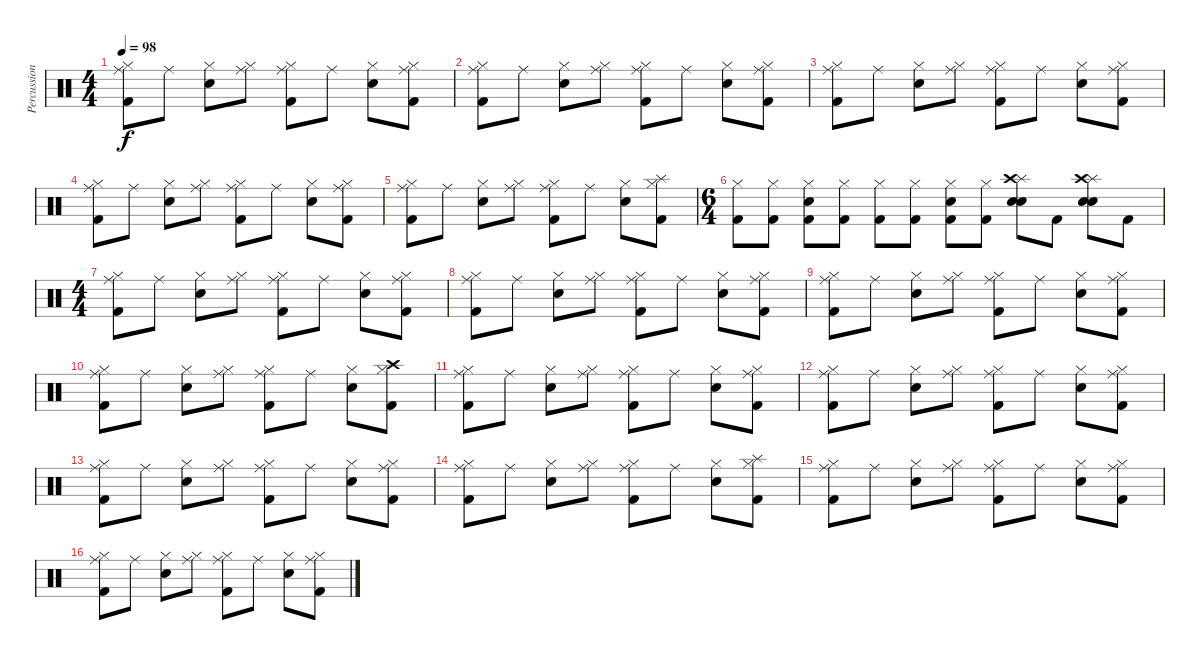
\track ("Percussion" "Percussion") {instrument percussion}
\staff {score}
\articulation defaults
\ts (4 4)
\tempo 98
\clef neutral
\ks c
("Hi-Hat (closed)" "Kick (hit) 2" "Ride (middle)").8{dy f} "Ride (middle)".8 ("Hi-Hat (closed)" "Electric Snare (hit)").8 ("Hi-Hat (closed)" "Ride (middle)").8 ("Hi-Hat (closed)" "Kick (hit) 2" "Ride (middle)").8 "Ride (middle)".8 ("Hi-Hat (closed)" "Electric Snare (hit)").8 ("Hi-Hat (closed)" "Kick (hit) 2" "Ride (middle)").8 |
("Hi-Hat (closed)" "Kick (hit) 2" "Ride (middle)").8 "Ride (middle)".8 ("Hi-Hat (closed)" "Electric Snare (hit)").8 ("Hi-Hat (closed)" "Ride (middle)").8 ("Hi-Hat (closed)" "Kick (hit) 2" "Ride (middle)").8 "Ride (middle)".8 ("Hi-Hat (closed)" "Electric Snare (hit)").8 ("Hi-Hat (closed)" "Kick (hit) 2" "Ride (middle)").8 |
("Hi-Hat (closed)" "Kick (hit) 2" "Ride (middle)").8 "Ride (middle)".8 ("Hi-Hat (closed)" "Electric Snare (hit)").8 ("Hi-Hat (closed)" "Ride (middle)").8 ("Hi-Hat (closed)" "Kick (hit) 2" "Ride (middle)").8 "Ride (middle)".8 ("Hi-Hat (closed)" "Electric Snare (hit)").8 ("Hi-Hat (closed)" "Kick (hit) 2" "Ride (middle)").8 |
("Hi-Hat (closed)" "Kick (hit) 2" "Ride (middle)").8 "Ride (middle)".8 ("Hi-Hat (closed)" "Electric Snare (hit)").8 ("Hi-Hat (closed)" "Ride (middle)").8 ("Hi-Hat (closed)" "Kick (hit) 2" "Ride (middle)").8 "Ride (middle)".8 ("Hi-Hat (closed)" "Electric Snare (hit)").8 ("Hi-Hat (closed)" "Kick (hit) 2" "Ride (middle)").8 |
("Hi-Hat (closed)" "Kick (hit) 2" "Ride (middle)").8 "Ride (middle)".8 ("Hi-Hat (closed)" "Electric Snare (hit)").8 ("Hi-Hat (closed)" "Ride (middle)").8 ("Hi-Hat (closed)" "Kick (hit) 2" "Ride (middle)").8 "Ride (middle)".8 ("Hi-Hat (closed)" "Electric Snare (hit)").8 ("Hi-Hat (closed)" "Kick (hit) 2" "Splash (hit)").8 |
\ts (6 4)
("Hi-Hat (closed)" "Kick (hit) 2").8 ("Hi-Hat (closed)" "Kick (hit) 2").8 ("Hi-Hat (closed)" "Kick (hit) 2" "Electric Snare (hit)").8 ("Hi-Hat (closed)" "Kick (hit) 2").8 ("Hi-Hat (closed)" "Kick (hit) 2").8 ("Hi-Hat (closed)" "Kick (hit) 2").8 ("Hi-Hat (closed)" "Kick (hit) 2" "Electric Snare (hit)").8 ("Hi-Hat (closed)" "Kick (hit) 2").8 ("Splash (hit)" "Snare (hit) 2" "Electric Snare (hit)" "Crash high (hit)").8 "Kick (hit) 2".8 ("Splash (hit)" "Snare (hit) 2" "Electric Snare (hit)" "Crash high (hit)").8 "Kick (hit) 2".8 |
\ts (4 4)
("Hi-Hat (closed)" "Kick (hit) 2" "Ride (middle)").8 "Ride (middle)".8 ("Hi-Hat (closed)" "Electric Snare (hit)").8 ("Hi-Hat (closed)" "Ride (middle)").8 ("Hi-Hat (closed)" "Kick (hit) 2" "Ride (middle)").8 "Ride (middle)".8 ("Hi-Hat (closed)" "Electric Snare (hit)").8 ("Hi-Hat (closed)" "Kick (hit) 2" "Ride (middle)").8 |
("Hi-Hat (closed)" "Kick (hit) 2" "Ride (middle)").8 "Ride (middle)".8 ("Hi-Hat (closed)" "Electric Snare (hit)").8 ("Hi-Hat (closed)" "Ride (middle)").8 ("Hi-Hat (closed)" "Kick (hit) 2" "Ride (middle)").8 "Ride (middle)".8 ("Hi-Hat (closed)" "Electric Snare (hit)").8 ("Hi-Hat (closed)" "Kick (hit) 2" "Ride (middle)").8 |
("Hi-Hat (closed)" "Kick (hit) 2" "Ride (middle)").8 "Ride (middle)".8 ("Hi-Hat (closed)" "Electric Snare (hit)").8 ("Hi-Hat (closed)" "Ride (middle)").8 ("Hi-Hat (closed)" "Kick (hit) 2" "Ride (middle)").8 "Ride (middle)".8 ("Hi-Hat (closed)" "Electric Snare (hit)").8 ("Hi-Hat (closed)" "Kick (hit) 2" "Ride (middle)").8 |
("Hi-Hat (closed)" "Kick (hit) 2" "Ride (middle)").8 "Ride (middle)".8 ("Hi-Hat (closed)" "Electric Snare (hit)").8 ("Hi-Hat (closed)" "Ride (middle)").8 ("Hi-Hat (closed)" "Kick (hit) 2" "Ride (middle)").8 "Ride (middle)".8 ("Hi-Hat (closed)" "Electric Snare (hit)").8 ("Hi-Hat (closed)" "Kick (hit) 2" "Crash high (hit)").8 |
("Hi-Hat (closed)" "Kick (hit) 2" "Ride (middle)").8 "Ride (middle)".8 ("Hi-Hat (closed)" "Electric Snare (hit)").8 ("Hi-Hat (closed)" "Ride (middle)").8 ("Hi-Hat (closed)" "Kick (hit) 2" "Ride (middle)").8 "Ride (middle)".8 ("Hi-Hat (closed)" "Electric Snare (hit)").8 ("Hi-Hat (closed)" "Kick (hit) 2" "Ride (middle)").8 |
("Hi-Hat (closed)" "Kick (hit) 2" "Ride (middle)").8 "Ride (middle)".8 ("Hi-Hat (closed)" "Electric Snare (hit)").8 ("Hi-Hat (closed)" "Ride (middle)").8 ("Hi-Hat (closed)" "Kick (hit) 2" "Ride (middle)").8 "Ride (middle)".8 ("Hi-Hat (closed)" "Electric Snare (hit)").8 ("Hi-Hat (closed)" "Kick (hit) 2" "Ride (middle)").8 |
("Hi-Hat (closed)" "Kick (hit) 2" "Ride (middle)").8 "Ride (middle)".8 ("Hi-Hat (closed)" "Electric Snare (hit)").8 ("Hi-Hat (closed)" "Ride (middle)").8 ("Hi-Hat (closed)" "Kick (hit) 2" "Ride (middle)").8 "Ride (middle)".8 ("Hi-Hat (closed)" "Electric Snare (hit)").8 ("Hi-Hat (closed)" "Kick (hit) 2" "Ride (middle)").8 |
("Hi-Hat (closed)" "Kick (hit) 2" "Ride (middle)").8 "Ride (middle)".8 ("Hi-Hat (closed)" "Electric Snare (hit)").8 ("Hi-Hat (closed)" "Ride (middle)").8 ("Hi-Hat (closed)" "Kick (hit) 2" "Ride (middle)").8 "Ride (middle)".8 ("Hi-Hat (closed)" "Electric Snare (hit)").8 ("Hi-Hat (closed)" "Kick (hit) 2" "Splash (hit)").8 |
("Hi-Hat (closed)" "Kick (hit) 2" "Ride (middle)").8 "Ride (middle)".8 ("Hi-Hat (closed)" "Electric Snare (hit)").8 ("Hi-Hat (closed)" "Ride (middle)").8 ("Hi-Hat (closed)" "Kick (hit) 2" "Ride (middle)").8 "Ride (middle)".8 ("Hi-Hat (closed)" "Electric Snare (hit)").8 ("Hi-Hat (closed)" "Kick (hit) 2" "Ride (middle)").8 |
("Hi-Hat (closed)" "Kick (hit) 2" "Ride (middle)").8 "Ride (middle)".8 ("Hi-Hat (closed)" "Electric Snare (hit)").8 ("Hi-Hat (closed)" "Ride (middle)").8 ("Hi-Hat (closed)" "Kick (hit) 2" "Ride (middle)").8 "Ride (middle)".8 ("Hi-Hat (closed)" "Electric Snare (hit)").8 ("Hi-Hat (closed)" "Kick (hit) 2" "Ride (middle)").8
